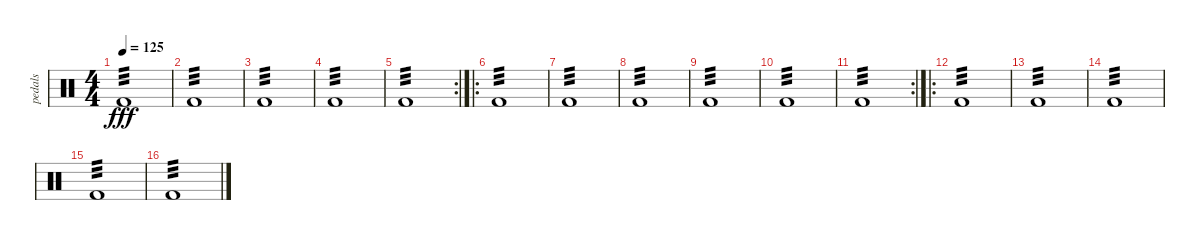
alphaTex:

\track ("pedals" "pedals") {instrument percussion}
\staff {score}
\articulation defaults
\ts (4 4)
\tempo 125
\clef neutral
\ks c "Kick (hit) 2".1{tp 3 dy fff}
|
"Kick (hit) 2".1{tp 3} |
"Kick (hit) 2".1{tp 3} |
"Kick (hit) 2".1{tp 3} |
\rc 2 "Kick (hit) 2".1{tp 3}
|
\ro "Kick (hit) 2".1{tp 3}
|
"Kick (hit) 2".1{tp 3} |
"Kick (hit) 2".1{tp 3} |
"Kick (hit) 2".1{tp 3} |
"Kick (hit) 2".1{tp 3} |
\rc 2 "Kick (hit) 2".1{tp 3}
|
\ro "Kick (hit) 2".1{tp 3}
|
"Kick (hit) 2".1{tp 3} |
"Kick (hit) 2".1{tp 3} |
"Kick (hit) 2".1{tp 3} |
"Kick (hit) 2".1{tp 3}
